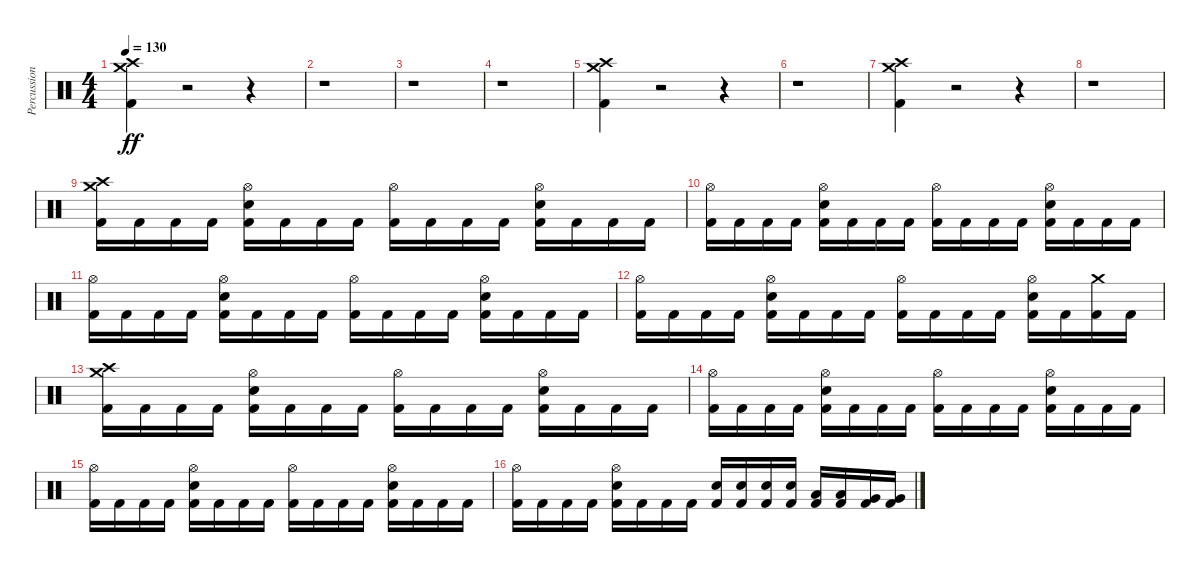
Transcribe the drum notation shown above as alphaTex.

\track ("Percussion" "Percussion") {instrument percussion}
\staff {score}
\articulation defaults
\ts (4 4)
\tempo 130
\clef neutral
\ks c
("Kick (hit) 2" "Crash high (hit)" "Crash medium (hit)").4{dy ff} r.2 r.4 |
r.1 |
r.1 |
r.1 |
("Kick (hit) 2" "Crash high (hit)" "Crash medium (hit)").4 r.2 r.4 |
r.1 |
("Kick (hit) 2" "Crash high (hit)" "Crash medium (hit)").4 r.2 r.4 |
r.1 |
("Kick (hit) 2" "Crash high (hit)" "Crash medium (hit)").16 "Kick (hit) 2".16 "Kick (hit) 2".16 "Kick (hit) 2".16 ("Kick (hit) 2" "Electric Snare (hit)" "Hi-Hat (open)").16 "Kick (hit) 2".16 "Kick (hit) 2".16 "Kick (hit) 2".16 ("Kick (hit) 2" "Hi-Hat (open)").16 "Kick (hit) 2".16 "Kick (hit) 2".16 "Kick (hit) 2".16 ("Kick (hit) 2" "Electric Snare (hit)" "Hi-Hat (open)").16 "Kick (hit) 2".16 "Kick (hit) 2".16 "Kick (hit) 2".16 |
("Kick (hit) 2" "Hi-Hat (open)").16 "Kick (hit) 2".16 "Kick (hit) 2".16 "Kick (hit) 2".16 ("Kick (hit) 2" "Electric Snare (hit)" "Hi-Hat (open)").16 "Kick (hit) 2".16 "Kick (hit) 2".16 "Kick (hit) 2".16 ("Kick (hit) 2" "Hi-Hat (open)").16 "Kick (hit) 2".16 "Kick (hit) 2".16 "Kick (hit) 2".16 ("Kick (hit) 2" "Electric Snare (hit)" "Hi-Hat (open)").16 "Kick (hit) 2".16 "Kick (hit) 2".16 "Kick (hit) 2".16 |
("Kick (hit) 2" "Hi-Hat (open)").16 "Kick (hit) 2".16 "Kick (hit) 2".16 "Kick (hit) 2".16 ("Kick (hit) 2" "Electric Snare (hit)" "Hi-Hat (open)").16 "Kick (hit) 2".16 "Kick (hit) 2".16 "Kick (hit) 2".16 ("Kick (hit) 2" "Hi-Hat (open)").16 "Kick (hit) 2".16 "Kick (hit) 2".16 "Kick (hit) 2".16 ("Kick (hit) 2" "Electric Snare (hit)" "Hi-Hat (open)").16 "Kick (hit) 2".16 "Kick (hit) 2".16 "Kick (hit) 2".16 |
("Kick (hit) 2" "Hi-Hat (open)").16 "Kick (hit) 2".16 "Kick (hit) 2".16 "Kick (hit) 2".16 ("Kick (hit) 2" "Electric Snare (hit)" "Hi-Hat (open)").16 "Kick (hit) 2".16 "Kick (hit) 2".16 "Kick (hit) 2".16 ("Kick (hit) 2" "Hi-Hat (open)").16 "Kick (hit) 2".16 "Kick (hit) 2".16 "Kick (hit) 2".16 ("Kick (hit) 2" "Electric Snare (hit)" "Hi-Hat (open)").16 "Kick (hit) 2".16 ("Kick (hit) 2" "Crash medium (hit)").16 "Kick (hit) 2".16 |
("Kick (hit) 2" "Crash high (hit)" "Crash medium (hit)").16 "Kick (hit) 2".16 "Kick (hit) 2".16 "Kick (hit) 2".16 ("Kick (hit) 2" "Electric Snare (hit)" "Hi-Hat (open)").16 "Kick (hit) 2".16 "Kick (hit) 2".16 "Kick (hit) 2".16 ("Kick (hit) 2" "Hi-Hat (open)").16 "Kick (hit) 2".16 "Kick (hit) 2".16 "Kick (hit) 2".16 ("Kick (hit) 2" "Electric Snare (hit)" "Hi-Hat (open)").16 "Kick (hit) 2".16 "Kick (hit) 2".16 "Kick (hit) 2".16 |
("Kick (hit) 2" "Hi-Hat (open)").16 "Kick (hit) 2".16 "Kick (hit) 2".16 "Kick (hit) 2".16 ("Kick (hit) 2" "Electric Snare (hit)" "Hi-Hat (open)").16 "Kick (hit) 2".16 "Kick (hit) 2".16 "Kick (hit) 2".16 ("Kick (hit) 2" "Hi-Hat (open)").16 "Kick (hit) 2".16 "Kick (hit) 2".16 "Kick (hit) 2".16 ("Kick (hit) 2" "Electric Snare (hit)" "Hi-Hat (open)").16 "Kick (hit) 2".16 "Kick (hit) 2".16 "Kick (hit) 2".16 |
("Kick (hit) 2" "Hi-Hat (open)").16 "Kick (hit) 2".16 "Kick (hit) 2".16 "Kick (hit) 2".16 ("Kick (hit) 2" "Electric Snare (hit)" "Hi-Hat (open)").16 "Kick (hit) 2".16 "Kick (hit) 2".16 "Kick (hit) 2".16 ("Kick (hit) 2" "Hi-Hat (open)").16 "Kick (hit) 2".16 "Kick (hit) 2".16 "Kick (hit) 2".16 ("Kick (hit) 2" "Electric Snare (hit)" "Hi-Hat (open)").16 "Kick (hit) 2".16 "Kick (hit) 2".16 "Kick (hit) 2".16 |
("Kick (hit) 2" "Hi-Hat (open)").16 "Kick (hit) 2".16 "Kick (hit) 2".16 "Kick (hit) 2".16 ("Kick (hit) 2" "Electric Snare (hit)" "Hi-Hat (open)").16 "Kick (hit) 2".16 "Kick (hit) 2".16 "Kick (hit) 2".16 ("Kick (hit) 2" "Electric Snare (hit)").16 ("Kick (hit) 2" "Electric Snare (hit)").16 ("Kick (hit) 2" "Electric Snare (hit)").16 ("Kick (hit) 2" "Electric Snare (hit)").16 ("Kick (hit) 2" "Low Tom (hit)").16 ("Kick (hit) 2" "Low Tom (hit)").16 ("Kick (hit) 2" "Very Low Tom (hit)").16 ("Kick (hit) 2" "Very Low Tom (hit)").16
